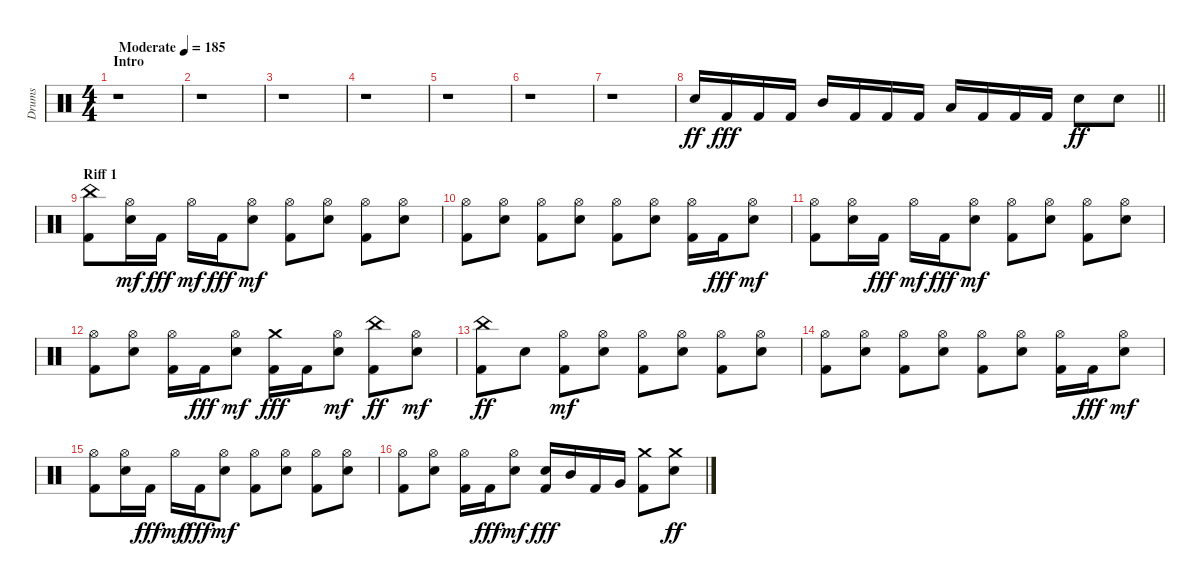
\track ("Drums" "Drums") {instrument percussion}
\staff {score}
\articulation defaults
\ts (4 4)
\section ("" "Intro")
\tempo (185 "Moderate")
\clef neutral
\ks c
r.1{dy ff} |
r.1 |
r.1 |
r.1 |
r.1 |
r.1 |
r.1 |
\barLineRight lightlight "Snare (hit) 2".16 "Kick (hit) 2".16{dy fff} "Kick (hit) 2".16 "Kick (hit) 2".16 "Mid Tom (hit)".16 "Kick (hit) 2".16 "Kick (hit) 2".16 "Kick (hit) 2".16 "Low Tom (hit)".16 "Kick (hit) 2".16 "Kick (hit) 2".16 "Kick (hit) 2".16 "Snare (hit) 2".8{dy ff} "Snare (hit) 2".8
|
\section ("" "Riff 1")
("Kick (hit) 2" "China (hit)").8 ("Snare (hit) 2" "Hi-Hat (open)").16{dy mf} "Kick (hit) 2".16{dy fff} "Hi-Hat (open)".16{dy mf} "Kick (hit) 2".16{dy fff} ("Snare (hit) 2" "Hi-Hat (open)").8{dy mf} ("Kick (hit) 2" "Hi-Hat (open)").8 ("Snare (hit) 2" "Hi-Hat (open)").8 ("Kick (hit) 2" "Hi-Hat (open)").8 ("Snare (hit) 2" "Hi-Hat (open)").8 |
("Kick (hit) 2" "Hi-Hat (open)").8 ("Snare (hit) 2" "Hi-Hat (open)").8 ("Kick (hit) 2" "Hi-Hat (open)").8 ("Snare (hit) 2" "Hi-Hat (open)").8 ("Kick (hit) 2" "Hi-Hat (open)").8 ("Snare (hit) 2" "Hi-Hat (open)").8 ("Kick (hit) 2" "Hi-Hat (open)").16 "Kick (hit) 2".16{dy fff} ("Snare (hit) 2" "Hi-Hat (open)").8{dy mf} |
("Kick (hit) 2" "Hi-Hat (open)").8 ("Snare (hit) 2" "Hi-Hat (open)").16 "Kick (hit) 2".16{dy fff} "Hi-Hat (open)".16{dy mf} "Kick (hit) 2".16{dy fff} ("Snare (hit) 2" "Hi-Hat (open)").8{dy mf} ("Kick (hit) 2" "Hi-Hat (open)").8 ("Snare (hit) 2" "Hi-Hat (open)").8 ("Kick (hit) 2" "Hi-Hat (open)").8 ("Snare (hit) 2" "Hi-Hat (open)").8 |
("Kick (hit) 2" "Hi-Hat (open)").8 ("Snare (hit) 2" "Hi-Hat (open)").8 ("Kick (hit) 2" "Hi-Hat (open)").16 "Kick (hit) 2".16{dy fff} ("Snare (hit) 2" "Hi-Hat (open)").8{dy mf} ("Kick (hit) 2" "Crash medium (hit)").16{dy fff} "Kick (hit) 2".16 ("Snare (hit) 2" "Hi-Hat (open)").8{dy mf} ("Kick (hit) 2" "China (hit)").8{dy ff} ("Snare (hit) 2" "Hi-Hat (open)").8{dy mf} |
("Kick (hit) 2" "China (hit)").8{dy ff} "Snare (hit) 2".8 ("Kick (hit) 2" "Hi-Hat (open)").8{dy mf} ("Snare (hit) 2" "Hi-Hat (open)").8 ("Kick (hit) 2" "Hi-Hat (open)").8 ("Snare (hit) 2" "Hi-Hat (open)").8 ("Kick (hit) 2" "Hi-Hat (open)").8 ("Snare (hit) 2" "Hi-Hat (open)").8 |
("Kick (hit) 2" "Hi-Hat (open)").8 ("Snare (hit) 2" "Hi-Hat (open)").8 ("Kick (hit) 2" "Hi-Hat (open)").8 ("Snare (hit) 2" "Hi-Hat (open)").8 ("Kick (hit) 2" "Hi-Hat (open)").8 ("Snare (hit) 2" "Hi-Hat (open)").8 ("Kick (hit) 2" "Hi-Hat (open)").16 "Kick (hit) 2".16{dy fff} ("Snare (hit) 2" "Hi-Hat (open)").8{dy mf} |
("Kick (hit) 2" "Hi-Hat (open)").8 ("Snare (hit) 2" "Hi-Hat (open)").16 "Kick (hit) 2".16{dy fff} "Hi-Hat (open)".16{dy mf} "Kick (hit) 2".16{dy fff} ("Snare (hit) 2" "Hi-Hat (open)").8{dy mf} ("Kick (hit) 2" "Hi-Hat (open)").8 ("Snare (hit) 2" "Hi-Hat (open)").8 ("Kick (hit) 2" "Hi-Hat (open)").8 ("Snare (hit) 2" "Hi-Hat (open)").8 |
("Kick (hit) 2" "Hi-Hat (open)").8 ("Snare (hit) 2" "Hi-Hat (open)").8 ("Kick (hit) 2" "Hi-Hat (open)").16 "Kick (hit) 2".16{dy fff} ("Snare (hit) 2" "Hi-Hat (open)").8{dy mf} ("Kick (hit) 2" "Snare (hit) 2").16{dy fff} "Mid Tom (hit)".16 "Kick (hit) 2".16 "Very Low Tom (hit)".16 ("Kick (hit) 2" "Crash medium (hit)").8 ("Snare (hit) 2" "Crash medium (hit)").8{dy ff}
